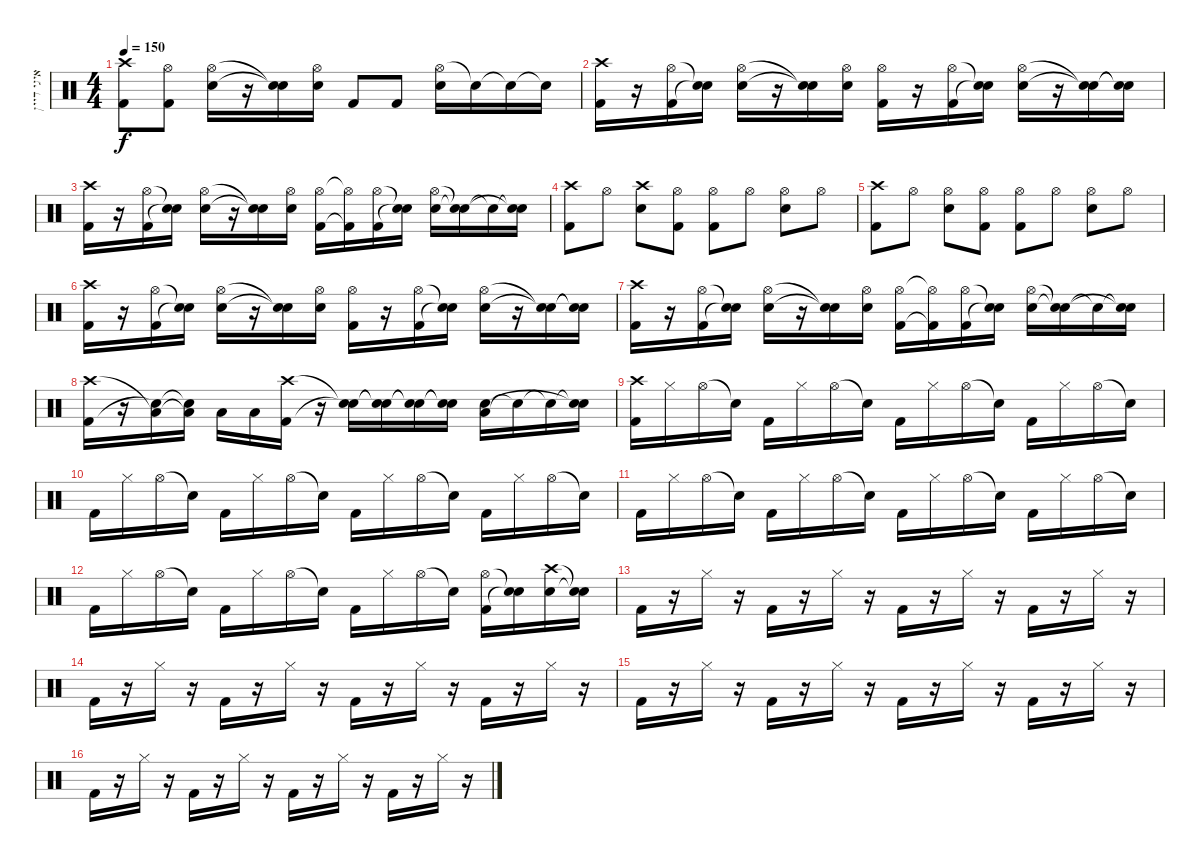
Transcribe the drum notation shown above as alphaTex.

\track ("איגי דיין" "איגי דיין") {instrument percussion}
\staff {score}
\articulation defaults
\ts (4 4)
\tempo 150
\clef neutral
\ks c
("Crash high (hit)" "Kick (hit) 2").8{dy f} ("Hi-Hat (open)" "Kick (hit) 2").8 ("Hi-Hat (open)" "Electric Snare (hit)").16 r.16 ("Snare (hit)"{t} "Snare (hit)"{t}).16 ("Hi-Hat (open)" "Electric Snare (hit)").16 "Kick (hit) 2".8 "Kick (hit) 2".8 ("Hi-Hat (open)" "Electric Snare (hit)").16 "Snare (hit)"{t}.16 "Snare (hit)"{t}.16 "Snare (hit)"{t}.16 |
("Crash high (hit)" "Kick (hit) 2").16 r.16 ("Hi-Hat (open)" "Kick (hit) 2").16 ("Snare (hit)"{t} "Snare (hit)"{t}).16 ("Hi-Hat (open)" "Electric Snare (hit)").16 r.16 ("Snare (hit)"{t} "Snare (hit)"{t}).16 ("Electric Snare (hit)" "Hi-Hat (open)").16 ("Hi-Hat (open)" "Kick (hit) 2").16 r.16 ("Hi-Hat (open)" "Kick (hit) 2").16 ("Snare (hit)"{t} "Snare (hit)"{t}).16 ("Hi-Hat (open)" "Electric Snare (hit)").16 r.16 ("Snare (hit)"{t} "Snare (hit)"{t}).16 ("Snare (hit)"{t} "Snare (hit)"{t}).16 |
("Crash high (hit)" "Kick (hit) 2").16 r.16 ("Hi-Hat (open)" "Kick (hit) 2").16 ("Snare (hit)"{t} "Snare (hit)"{t}).16 ("Hi-Hat (open)" "Electric Snare (hit)").16 r.16 ("Snare (hit)"{t} "Snare (hit)"{t}).16 ("Electric Snare (hit)" "Hi-Hat (open)").16 ("Hi-Hat (open)" "Kick (hit) 2").16 ("Hi-Hat (open)"{t} "Kick (hit) 2"{t}).16 ("Hi-Hat (open)" "Kick (hit) 2").16 ("Snare (hit)"{t} "Snare (hit)"{t}).16 ("Hi-Hat (open)" "Electric Snare (hit)").16 ("Snare (hit)"{t} "Snare (hit)"{t}).16 "Snare (hit)"{t}.16 ("Snare (hit)"{t} "Snare (hit)"{t}).16 |
("Crash high (hit)" "Kick (hit) 2").8 "Hi-Hat (open)".8 ("Crash high (hit)" "Electric Snare (hit)").8 ("Hi-Hat (open)" "Kick (hit) 2").8 ("Hi-Hat (open)" "Kick (hit) 2").8 "Hi-Hat (open)".8 ("Hi-Hat (open)" "Electric Snare (hit)").8 "Hi-Hat (open)".8 |
("Crash high (hit)" "Kick (hit) 2").8 "Hi-Hat (open)".8 ("Hi-Hat (open)" "Electric Snare (hit)").8 ("Hi-Hat (open)" "Kick (hit) 2").8 ("Hi-Hat (open)" "Kick (hit) 2").8 "Hi-Hat (open)".8 ("Hi-Hat (open)" "Electric Snare (hit)").8 "Hi-Hat (open)".8 |
("Crash high (hit)" "Kick (hit) 2").16 r.16 ("Hi-Hat (open)" "Kick (hit) 2").16 ("Snare (hit)"{t} "Snare (hit)"{t}).16 ("Hi-Hat (open)" "Electric Snare (hit)").16 r.16 ("Snare (hit)"{t} "Snare (hit)"{t}).16 ("Electric Snare (hit)" "Hi-Hat (open)").16 ("Hi-Hat (open)" "Kick (hit) 2").16 r.16 ("Hi-Hat (open)" "Kick (hit) 2").16 ("Snare (hit)"{t} "Snare (hit)"{t}).16 ("Hi-Hat (open)" "Electric Snare (hit)").16 r.16 ("Snare (hit)"{t} "Snare (hit)"{t}).16 ("Snare (hit)"{t} "Snare (hit)"{t}).16 |
("Crash high (hit)" "Kick (hit) 2").16 r.16 ("Hi-Hat (open)" "Kick (hit) 2").16 ("Snare (hit)"{t} "Snare (hit)"{t}).16 ("Hi-Hat (open)" "Electric Snare (hit)").16 r.16 ("Snare (hit)"{t} "Snare (hit)"{t}).16 ("Electric Snare (hit)" "Hi-Hat (open)").16 ("Hi-Hat (open)" "Kick (hit) 2").16 ("Hi-Hat (open)"{t} "Kick (hit) 2"{t}).16 ("Hi-Hat (open)" "Kick (hit) 2").16 ("Snare (hit)"{t} "Snare (hit)"{t}).16 ("Hi-Hat (open)" "Electric Snare (hit)").16 ("Snare (hit)"{t} "Snare (hit)"{t}).16 "Snare (hit)"{t}.16 ("Snare (hit)"{t} "Snare (hit)"{t}).16 |
("Crash high (hit)" "Kick (hit) 2").16 r.16 ("Low Tom (hit)"{t} "Snare (hit)"{t}).16 ("Low Tom (hit)"{t} "Snare (hit)"{t}).16 "Low Tom (hit)".16 "Low Floor Tom (hit)".16 ("Crash high (hit)" "Kick (hit) 2").16 r.16 ("Snare (hit)"{t} "Snare (hit)"{t}).16 ("Snare (hit)"{t} "Snare (hit)"{t}).16 ("Snare (hit)"{t} "Snare (hit)"{t}).16 ("Snare (hit)"{t} "Snare (hit)"{t}).16 ("Low Floor Tom (hit)" "Electric Snare (hit)").16 "Snare (hit)"{t}.16 "Snare (hit)"{t}.16 ("Snare (hit)"{t} "Snare (hit)"{t}).16 |
("Crash high (hit)" "Kick (hit) 2").16 "Hi-Hat (closed)".16 "Hi-Hat (open)".16 "Snare (hit)"{t}.16 "Kick (hit) 2".16 "Hi-Hat (closed)".16 "Hi-Hat (open)".16 "Snare (hit)"{t}.16 "Kick (hit) 2".16 "Hi-Hat (closed)".16 "Hi-Hat (open)".16 "Snare (hit)"{t}.16 "Kick (hit) 2".16 "Hi-Hat (closed)".16 "Hi-Hat (open)".16 "Snare (hit)"{t}.16 |
"Kick (hit) 2".16 "Hi-Hat (closed)".16 "Hi-Hat (open)".16 "Snare (hit)"{t}.16 "Kick (hit) 2".16 "Hi-Hat (closed)".16 "Hi-Hat (open)".16 "Snare (hit)"{t}.16 "Kick (hit) 2".16 "Hi-Hat (closed)".16 "Hi-Hat (open)".16 "Snare (hit)"{t}.16 "Kick (hit) 2".16 "Hi-Hat (closed)".16 "Hi-Hat (open)".16 "Snare (hit)"{t}.16 |
"Kick (hit) 2".16 "Hi-Hat (closed)".16 "Hi-Hat (open)".16 "Snare (hit)"{t}.16 "Kick (hit) 2".16 "Hi-Hat (closed)".16 "Hi-Hat (open)".16 "Snare (hit)"{t}.16 "Kick (hit) 2".16 "Hi-Hat (closed)".16 "Hi-Hat (open)".16 "Snare (hit)"{t}.16 "Kick (hit) 2".16 "Hi-Hat (closed)".16 "Hi-Hat (open)".16 "Snare (hit)"{t}.16 |
"Kick (hit) 2".16 "Hi-Hat (closed)".16 "Hi-Hat (open)".16 "Snare (hit)"{t}.16 "Kick (hit) 2".16 "Hi-Hat (closed)".16 "Hi-Hat (open)".16 "Snare (hit)"{t}.16 "Kick (hit) 2".16 "Hi-Hat (closed)".16 "Hi-Hat (open)".16 "Snare (hit)"{t}.16 ("Kick (hit) 2" "Hi-Hat (open)").16 ("Snare (hit)"{t} "Snare (hit)"{t}).16 ("Crash high (hit)" "Electric Snare (hit)").16 ("Snare (hit)"{t} "Snare (hit)"{t}).16 |
"Kick (hit) 2".16 r.16 "Hi-Hat (closed)".16 r.16 "Kick (hit) 2".16 r.16 "Hi-Hat (closed)".16 r.16 "Kick (hit) 2".16 r.16 "Hi-Hat (closed)".16 r.16 "Kick (hit) 2".16 r.16 "Hi-Hat (closed)".16 r.16 |
"Kick (hit) 2".16 r.16 "Hi-Hat (closed)".16 r.16 "Kick (hit) 2".16 r.16 "Hi-Hat (closed)".16 r.16 "Kick (hit) 2".16 r.16 "Hi-Hat (closed)".16 r.16 "Kick (hit) 2".16 r.16 "Hi-Hat (closed)".16 r.16 |
"Kick (hit) 2".16 r.16 "Hi-Hat (closed)".16 r.16 "Kick (hit) 2".16 r.16 "Hi-Hat (closed)".16 r.16 "Kick (hit) 2".16 r.16 "Hi-Hat (closed)".16 r.16 "Kick (hit) 2".16 r.16 "Hi-Hat (closed)".16 r.16 |
"Kick (hit) 2".16 r.16 "Hi-Hat (closed)".16 r.16 "Kick (hit) 2".16 r.16 "Hi-Hat (closed)".16 r.16 "Kick (hit) 2".16 r.16 "Hi-Hat (closed)".16 r.16 "Kick (hit) 2".16 r.16 "Hi-Hat (closed)".16 r.16
